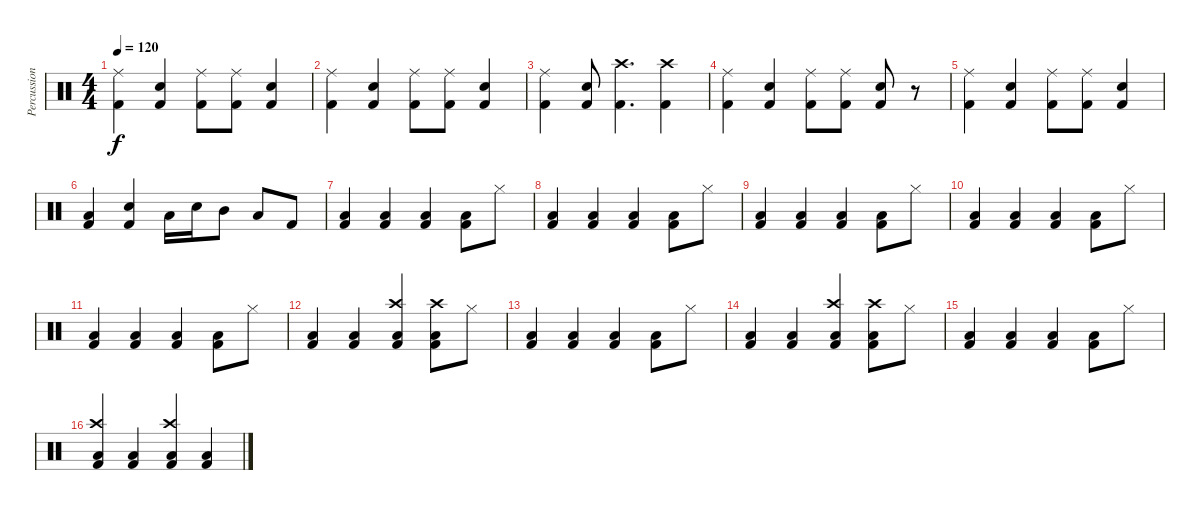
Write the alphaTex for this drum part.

\track ("Percussion" "Percussion") {instrument percussion}
\staff {score}
\articulation defaults
\ts (4 4)
\tempo 120
\clef neutral
\ks c
("Kick (hit) 2" "Ride (middle)").4{dy f} ("Kick (hit) 2" "Snare (hit) 2").4 ("Kick (hit) 2" "Ride (middle)").8 ("Kick (hit) 2" "Ride (middle)").8 ("Kick (hit) 2" "Snare (hit) 2").4 |
("Kick (hit) 2" "Ride (middle)").4 ("Kick (hit) 2" "Snare (hit) 2").4 ("Kick (hit) 2" "Ride (middle)").8 ("Kick (hit) 2" "Ride (middle)").8 ("Kick (hit) 2" "Snare (hit) 2").4 |
("Kick (hit) 2" "Ride (middle)").4 ("Kick (hit) 2" "Snare (hit) 2").8 ("Kick (hit) 2" "Crash high (hit)").4{d} ("Kick (hit) 2" "Crash high (hit)").4 |
("Kick (hit) 2" "Ride (middle)").4 ("Kick (hit) 2" "Snare (hit) 2").4 ("Kick (hit) 2" "Ride (middle)").8 ("Kick (hit) 2" "Ride (middle)").8 ("Kick (hit) 2" "Snare (hit) 2").8 r.8 |
("Kick (hit) 2" "Ride (middle)").4 ("Kick (hit) 2" "Snare (hit) 2").4 ("Kick (hit) 2" "Ride (middle)").8 ("Kick (hit) 2" "Ride (middle)").8 ("Kick (hit) 2" "Snare (hit) 2").4 |
("Kick (hit) 2" "Low Floor Tom (hit)").4 ("Kick (hit) 2" "Snare (hit) 2").4 "Low Floor Tom (hit)".16 "Snare (hit) 2".16 "Mid Tom (hit)".8 "Low Floor Tom (hit)".8 "Kick (hit) 2".8 |
("Kick (hit) 2" "Low Floor Tom (hit)").4 ("Kick (hit) 2" "Low Floor Tom (hit)").4 ("Kick (hit) 2" "Low Floor Tom (hit)").4 ("Kick (hit) 2" "Low Floor Tom (hit)").8 "Hi-Hat (closed)".8 |
("Kick (hit) 2" "Low Floor Tom (hit)").4 ("Kick (hit) 2" "Low Floor Tom (hit)").4 ("Kick (hit) 2" "Low Floor Tom (hit)").4 ("Kick (hit) 2" "Low Floor Tom (hit)").8 "Hi-Hat (closed)".8 |
("Kick (hit) 2" "Low Floor Tom (hit)").4 ("Kick (hit) 2" "Low Floor Tom (hit)").4 ("Kick (hit) 2" "Low Floor Tom (hit)").4 ("Kick (hit) 2" "Low Floor Tom (hit)").8 "Hi-Hat (closed)".8 |
("Kick (hit) 2" "Low Floor Tom (hit)").4 ("Kick (hit) 2" "Low Floor Tom (hit)").4 ("Kick (hit) 2" "Low Floor Tom (hit)").4 ("Kick (hit) 2" "Low Floor Tom (hit)").8 "Hi-Hat (closed)".8 |
("Kick (hit) 2" "Low Floor Tom (hit)").4 ("Kick (hit) 2" "Low Floor Tom (hit)").4 ("Kick (hit) 2" "Low Floor Tom (hit)").4 ("Kick (hit) 2" "Low Floor Tom (hit)").8 "Hi-Hat (closed)".8 |
("Kick (hit) 2" "Low Floor Tom (hit)").4 ("Kick (hit) 2" "Low Floor Tom (hit)").4 ("Kick (hit) 2" "Low Floor Tom (hit)" "Crash high (hit)").4 ("Kick (hit) 2" "Low Floor Tom (hit)" "Crash high (hit)").8 "Hi-Hat (closed)".8 |
("Kick (hit) 2" "Low Floor Tom (hit)").4 ("Kick (hit) 2" "Low Floor Tom (hit)").4 ("Kick (hit) 2" "Low Floor Tom (hit)").4 ("Kick (hit) 2" "Low Floor Tom (hit)").8 "Hi-Hat (closed)".8 |
("Kick (hit) 2" "Low Floor Tom (hit)").4 ("Kick (hit) 2" "Low Floor Tom (hit)").4 ("Kick (hit) 2" "Low Floor Tom (hit)" "Crash high (hit)").4 ("Kick (hit) 2" "Low Floor Tom (hit)" "Crash high (hit)").8 "Hi-Hat (closed)".8 |
("Kick (hit) 2" "Low Floor Tom (hit)").4 ("Kick (hit) 2" "Low Floor Tom (hit)").4 ("Kick (hit) 2" "Low Floor Tom (hit)").4 ("Kick (hit) 2" "Low Floor Tom (hit)").8 "Hi-Hat (closed)".8 |
("Kick (hit) 2" "Low Floor Tom (hit)" "Crash high (hit)").4 ("Kick (hit) 2" "Low Floor Tom (hit)").4 ("Kick (hit) 2" "Low Floor Tom (hit)" "Crash high (hit)").4 ("Kick (hit) 2" "Low Floor Tom (hit)").4
